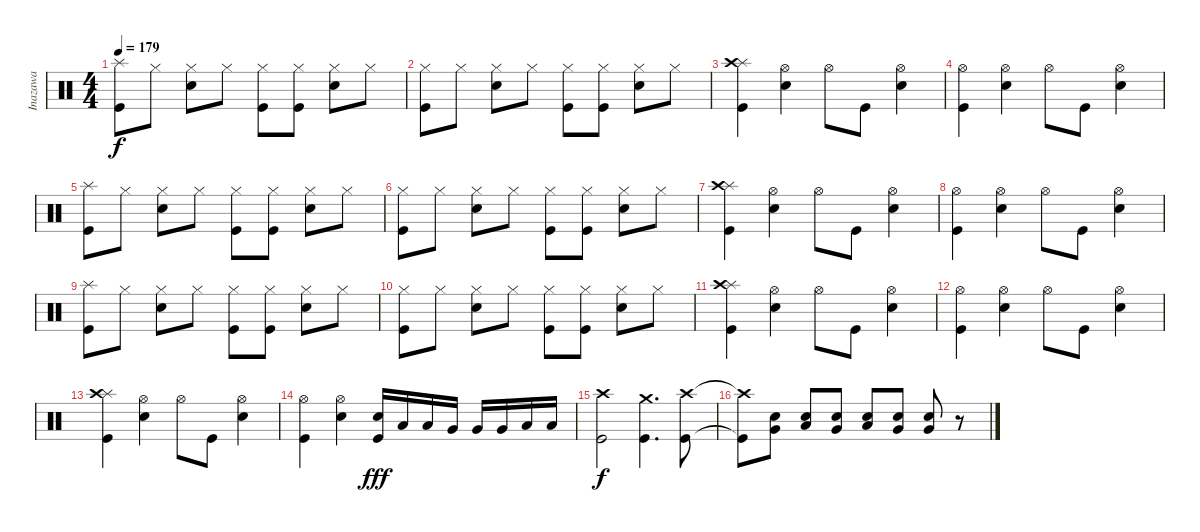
\track ("Inazawa" "Inazawa") {instrument percussion}
\staff {score}
\articulation defaults
\ts (4 4)
\tempo 179
\clef neutral
\ks c
("Splash (hit)" "Kick (hit)").8{dy f} "Hi-Hat (closed)".8 ("Hi-Hat (closed)" "Snare (hit) 2").8 "Hi-Hat (closed)".8 ("Hi-Hat (closed)" "Kick (hit)").8 ("Hi-Hat (closed)" "Kick (hit)").8 ("Hi-Hat (closed)" "Snare (hit) 2").8 "Hi-Hat (closed)".8 |
("Hi-Hat (closed)" "Kick (hit)").8 "Hi-Hat (closed)".8 ("Hi-Hat (closed)" "Snare (hit) 2").8 "Hi-Hat (closed)".8 ("Hi-Hat (closed)" "Kick (hit)").8 ("Hi-Hat (closed)" "Kick (hit)").8 ("Hi-Hat (closed)" "Snare (hit) 2").8 "Hi-Hat (closed)".8 |
("Splash (hit)" "Crash high (hit)" "Kick (hit)").4 ("Hi-Hat (open)" "Snare (hit) 2").4 "Hi-Hat (open)".8 "Kick (hit)".8 ("Hi-Hat (open)" "Snare (hit) 2").4 |
("Hi-Hat (open)" "Kick (hit)").4 ("Hi-Hat (open)" "Snare (hit) 2").4 "Hi-Hat (open)".8 "Kick (hit)".8 ("Hi-Hat (open)" "Snare (hit) 2").4 |
("Splash (hit)" "Kick (hit)").8 "Hi-Hat (closed)".8 ("Hi-Hat (closed)" "Snare (hit) 2").8 "Hi-Hat (closed)".8 ("Hi-Hat (closed)" "Kick (hit)").8 ("Hi-Hat (closed)" "Kick (hit)").8 ("Hi-Hat (closed)" "Snare (hit) 2").8 "Hi-Hat (closed)".8 |
("Hi-Hat (closed)" "Kick (hit)").8 "Hi-Hat (closed)".8 ("Hi-Hat (closed)" "Snare (hit) 2").8 "Hi-Hat (closed)".8 ("Hi-Hat (closed)" "Kick (hit)").8 ("Hi-Hat (closed)" "Kick (hit)").8 ("Hi-Hat (closed)" "Snare (hit) 2").8 "Hi-Hat (closed)".8 |
("Splash (hit)" "Crash high (hit)" "Kick (hit)").4 ("Hi-Hat (open)" "Snare (hit) 2").4 "Hi-Hat (open)".8 "Kick (hit)".8 ("Hi-Hat (open)" "Snare (hit) 2").4 |
("Hi-Hat (open)" "Kick (hit)").4 ("Hi-Hat (open)" "Snare (hit) 2").4 "Hi-Hat (open)".8 "Kick (hit)".8 ("Hi-Hat (open)" "Snare (hit) 2").4 |
("Splash (hit)" "Kick (hit)").8 "Hi-Hat (closed)".8 ("Hi-Hat (closed)" "Snare (hit) 2").8 "Hi-Hat (closed)".8 ("Hi-Hat (closed)" "Kick (hit)").8 ("Hi-Hat (closed)" "Kick (hit)").8 ("Hi-Hat (closed)" "Snare (hit) 2").8 "Hi-Hat (closed)".8 |
("Hi-Hat (closed)" "Kick (hit)").8 "Hi-Hat (closed)".8 ("Hi-Hat (closed)" "Snare (hit) 2").8 "Hi-Hat (closed)".8 ("Hi-Hat (closed)" "Kick (hit)").8 ("Hi-Hat (closed)" "Kick (hit)").8 ("Hi-Hat (closed)" "Snare (hit) 2").8 "Hi-Hat (closed)".8 |
("Splash (hit)" "Crash high (hit)" "Kick (hit)").4 ("Hi-Hat (open)" "Snare (hit) 2").4 "Hi-Hat (open)".8 "Kick (hit)".8 ("Hi-Hat (open)" "Snare (hit) 2").4 |
("Hi-Hat (open)" "Kick (hit)").4 ("Hi-Hat (open)" "Snare (hit) 2").4 "Hi-Hat (open)".8 "Kick (hit)".8 ("Hi-Hat (open)" "Snare (hit) 2").4 |
("Splash (hit)" "Crash high (hit)" "Kick (hit)").4 ("Hi-Hat (open)" "Snare (hit) 2").4 "Hi-Hat (open)".8 "Kick (hit)".8 ("Hi-Hat (open)" "Snare (hit) 2").4 |
("Hi-Hat (open)" "Kick (hit)").4 ("Hi-Hat (open)" "Snare (hit) 2").4 ("Snare (hit) 2" "Kick (hit)").16{dy fff} "Low Tom (hit)".16 "Low Tom (hit)".16 "Very Low Tom (hit)".16 "Very Low Tom (hit)".16 "Very Low Tom (hit)".16 "Low Floor Tom (hit)".16 "Low Floor Tom (hit)".16 |
("Crash high (hit)" "Kick (hit)").2{dy f} ("Crash medium (hit)" "Kick (hit)").4{d} ("Crash high (hit)" "Kick (hit)").8 |
("Crash high (hit)"{t} "Kick (hit)"{t}).8 ("Snare (hit) 2" "Very Low Tom (hit)").8 ("Snare (hit) 2" "Low Tom (hit)").8 ("Snare (hit) 2" "Very Low Tom (hit)").8 ("Snare (hit) 2" "Low Tom (hit)").8 ("Snare (hit) 2" "Very Low Tom (hit)").8 ("Snare (hit) 2" "Very Low Tom (hit)").8 r.8
